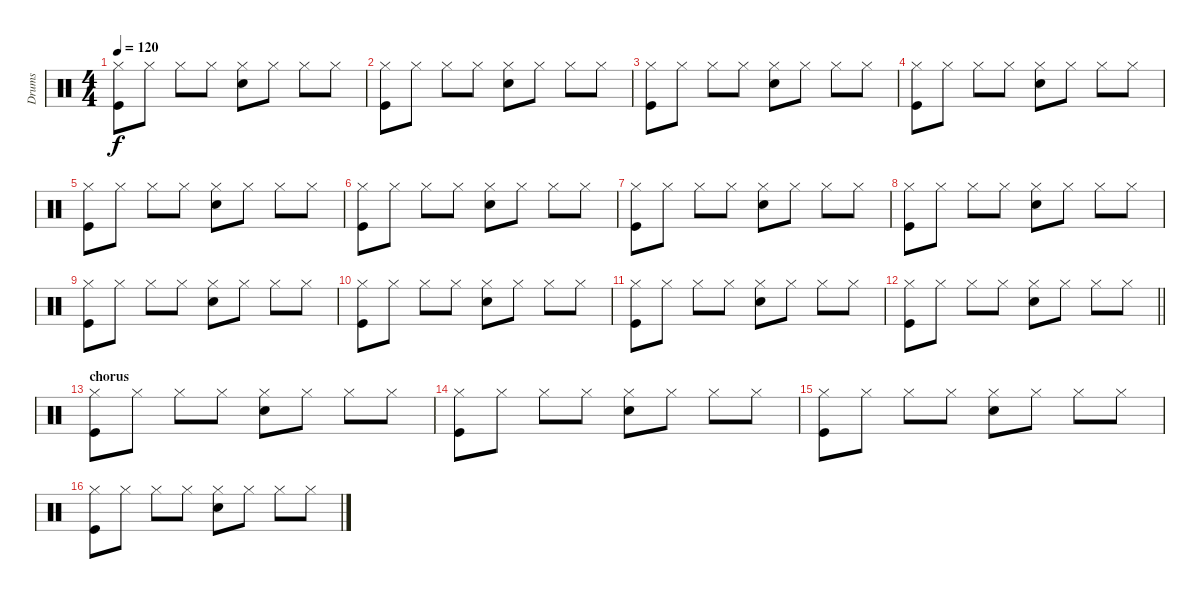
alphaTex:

\track ("Drums" "Drums") {instrument percussion}
\staff {score}
\articulation defaults
\ts (4 4)
\tempo 120
\clef neutral
\ks c
("Hi-Hat (closed)" "Kick (hit)").8{dy f} "Hi-Hat (closed)".8 "Hi-Hat (closed)".8 "Hi-Hat (closed)".8 ("Hi-Hat (closed)" "Snare (hit) 2").8 "Hi-Hat (closed)".8 "Hi-Hat (closed)".8 "Hi-Hat (closed)".8 |
("Hi-Hat (closed)" "Kick (hit)").8 "Hi-Hat (closed)".8 "Hi-Hat (closed)".8 "Hi-Hat (closed)".8 ("Hi-Hat (closed)" "Snare (hit) 2").8 "Hi-Hat (closed)".8 "Hi-Hat (closed)".8 "Hi-Hat (closed)".8 |
("Hi-Hat (closed)" "Kick (hit)").8 "Hi-Hat (closed)".8 "Hi-Hat (closed)".8 "Hi-Hat (closed)".8 ("Hi-Hat (closed)" "Snare (hit) 2").8 "Hi-Hat (closed)".8 "Hi-Hat (closed)".8 "Hi-Hat (closed)".8 |
("Hi-Hat (closed)" "Kick (hit)").8 "Hi-Hat (closed)".8 "Hi-Hat (closed)".8 "Hi-Hat (closed)".8 ("Hi-Hat (closed)" "Snare (hit) 2").8 "Hi-Hat (closed)".8 "Hi-Hat (closed)".8 "Hi-Hat (closed)".8 |
("Hi-Hat (closed)" "Kick (hit)").8 "Hi-Hat (closed)".8 "Hi-Hat (closed)".8 "Hi-Hat (closed)".8 ("Hi-Hat (closed)" "Snare (hit) 2").8 "Hi-Hat (closed)".8 "Hi-Hat (closed)".8 "Hi-Hat (closed)".8 |
("Hi-Hat (closed)" "Kick (hit)").8 "Hi-Hat (closed)".8 "Hi-Hat (closed)".8 "Hi-Hat (closed)".8 ("Hi-Hat (closed)" "Snare (hit) 2").8 "Hi-Hat (closed)".8 "Hi-Hat (closed)".8 "Hi-Hat (closed)".8 |
("Hi-Hat (closed)" "Kick (hit)").8 "Hi-Hat (closed)".8 "Hi-Hat (closed)".8 "Hi-Hat (closed)".8 ("Hi-Hat (closed)" "Snare (hit) 2").8 "Hi-Hat (closed)".8 "Hi-Hat (closed)".8 "Hi-Hat (closed)".8 |
("Hi-Hat (closed)" "Kick (hit)").8 "Hi-Hat (closed)".8 "Hi-Hat (closed)".8 "Hi-Hat (closed)".8 ("Hi-Hat (closed)" "Snare (hit) 2").8 "Hi-Hat (closed)".8 "Hi-Hat (closed)".8 "Hi-Hat (closed)".8 |
("Hi-Hat (closed)" "Kick (hit)").8 "Hi-Hat (closed)".8 "Hi-Hat (closed)".8 "Hi-Hat (closed)".8 ("Hi-Hat (closed)" "Snare (hit) 2").8 "Hi-Hat (closed)".8 "Hi-Hat (closed)".8 "Hi-Hat (closed)".8 |
("Hi-Hat (closed)" "Kick (hit)").8 "Hi-Hat (closed)".8 "Hi-Hat (closed)".8 "Hi-Hat (closed)".8 ("Hi-Hat (closed)" "Snare (hit) 2").8 "Hi-Hat (closed)".8 "Hi-Hat (closed)".8 "Hi-Hat (closed)".8 |
("Hi-Hat (closed)" "Kick (hit)").8 "Hi-Hat (closed)".8 "Hi-Hat (closed)".8 "Hi-Hat (closed)".8 ("Hi-Hat (closed)" "Snare (hit) 2").8 "Hi-Hat (closed)".8 "Hi-Hat (closed)".8 "Hi-Hat (closed)".8 |
\barLineRight lightlight
("Hi-Hat (closed)" "Kick (hit)").8 "Hi-Hat (closed)".8 "Hi-Hat (closed)".8 "Hi-Hat (closed)".8 ("Hi-Hat (closed)" "Snare (hit) 2").8 "Hi-Hat (closed)".8 "Hi-Hat (closed)".8 "Hi-Hat (closed)".8 |
\section ("" "chorus ")
("Hi-Hat (closed)" "Kick (hit)").8 "Hi-Hat (closed)".8 "Hi-Hat (closed)".8 "Hi-Hat (closed)".8 ("Hi-Hat (closed)" "Snare (hit) 2").8 "Hi-Hat (closed)".8 "Hi-Hat (closed)".8 "Hi-Hat (closed)".8 |
("Hi-Hat (closed)" "Kick (hit)").8 "Hi-Hat (closed)".8 "Hi-Hat (closed)".8 "Hi-Hat (closed)".8 ("Hi-Hat (closed)" "Snare (hit) 2").8 "Hi-Hat (closed)".8 "Hi-Hat (closed)".8 "Hi-Hat (closed)".8 |
("Hi-Hat (closed)" "Kick (hit)").8 "Hi-Hat (closed)".8 "Hi-Hat (closed)".8 "Hi-Hat (closed)".8 ("Hi-Hat (closed)" "Snare (hit) 2").8 "Hi-Hat (closed)".8 "Hi-Hat (closed)".8 "Hi-Hat (closed)".8 |
("Hi-Hat (closed)" "Kick (hit)").8 "Hi-Hat (closed)".8 "Hi-Hat (closed)".8 "Hi-Hat (closed)".8 ("Hi-Hat (closed)" "Snare (hit) 2").8 "Hi-Hat (closed)".8 "Hi-Hat (closed)".8 "Hi-Hat (closed)".8
